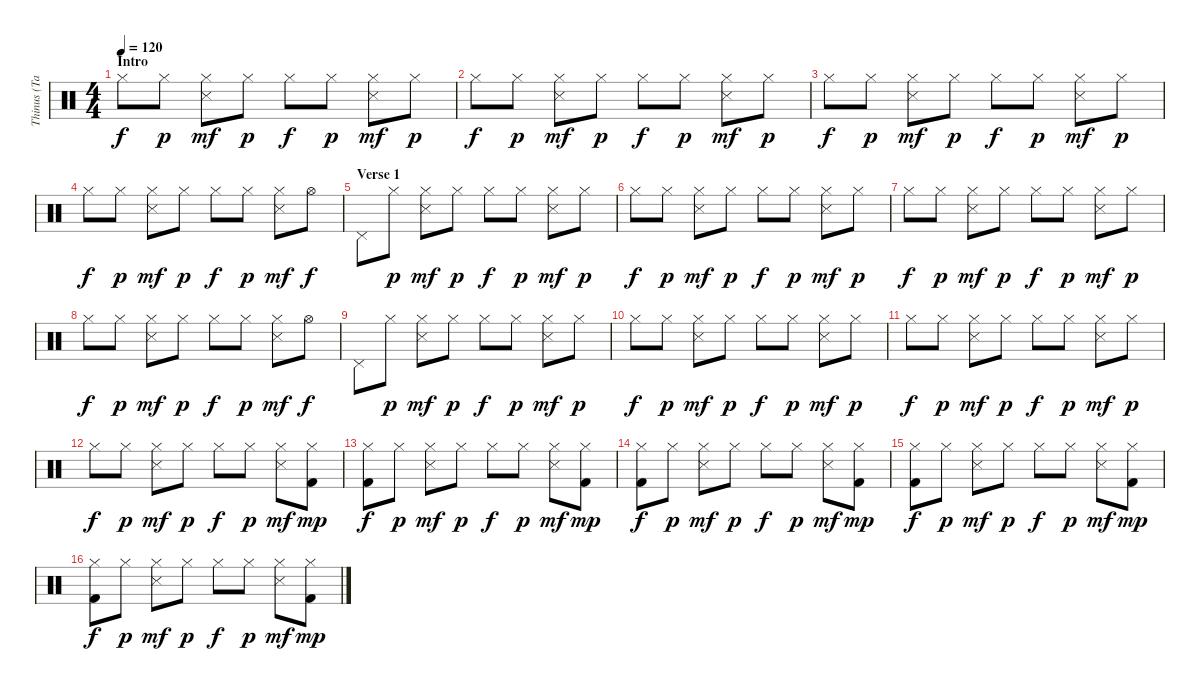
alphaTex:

\track ("Thinus (Tain) Odendaal - Drums" "Thinus (Ta") {instrument percussion}
\staff {score}
\articulation defaults
\ts (4 4)
\section ("" "Intro")
\tempo 120
\clef neutral
\ks c "Hi-Hat (closed)".8{dy f} "Hi-Hat (closed)".8{dy p}
("Hi-Hat (closed)" "Snare (side stick) 3").8{dy mf} "Hi-Hat (closed)".8{dy p} "Hi-Hat (closed)".8{dy f} "Hi-Hat (closed)".8{dy p} ("Hi-Hat (closed)" "Snare (side stick) 3").8{dy mf} "Hi-Hat (closed)".8{dy p} |
"Hi-Hat (closed)".8{dy f} "Hi-Hat (closed)".8{dy p} ("Hi-Hat (closed)" "Snare (side stick) 3").8{dy mf} "Hi-Hat (closed)".8{dy p} "Hi-Hat (closed)".8{dy f} "Hi-Hat (closed)".8{dy p} ("Hi-Hat (closed)" "Snare (side stick) 3").8{dy mf} "Hi-Hat (closed)".8{dy p} |
"Hi-Hat (closed)".8{dy f} "Hi-Hat (closed)".8{dy p} ("Hi-Hat (closed)" "Snare (side stick) 3").8{dy mf} "Hi-Hat (closed)".8{dy p} "Hi-Hat (closed)".8{dy f} "Hi-Hat (closed)".8{dy p} ("Hi-Hat (closed)" "Snare (side stick) 3").8{dy mf} "Hi-Hat (closed)".8{dy p} |
"Hi-Hat (closed)".8{dy f} "Hi-Hat (closed)".8{dy p} ("Hi-Hat (closed)" "Snare (side stick) 3").8{dy mf} "Hi-Hat (closed)".8{dy p} "Hi-Hat (closed)".8{dy f} "Hi-Hat (closed)".8{dy p} ("Hi-Hat (closed)" "Snare (side stick) 3").8{dy mf} "Hi-Hat (open)".8{dy f} |
\section ("" "Verse 1")
"Pedal Hi-Hat (hit)".8 "Hi-Hat (closed)".8{dy p} ("Hi-Hat (closed)" "Snare (side stick) 3").8{dy mf} "Hi-Hat (closed)".8{dy p} "Hi-Hat (closed)".8{dy f} "Hi-Hat (closed)".8{dy p} ("Hi-Hat (closed)" "Snare (side stick) 3").8{dy mf} "Hi-Hat (closed)".8{dy p} |
"Hi-Hat (closed)".8{dy f} "Hi-Hat (closed)".8{dy p} ("Hi-Hat (closed)" "Snare (side stick) 3").8{dy mf} "Hi-Hat (closed)".8{dy p} "Hi-Hat (closed)".8{dy f} "Hi-Hat (closed)".8{dy p} ("Hi-Hat (closed)" "Snare (side stick) 3").8{dy mf} "Hi-Hat (closed)".8{dy p} |
"Hi-Hat (closed)".8{dy f} "Hi-Hat (closed)".8{dy p} ("Hi-Hat (closed)" "Snare (side stick) 3").8{dy mf} "Hi-Hat (closed)".8{dy p} "Hi-Hat (closed)".8{dy f} "Hi-Hat (closed)".8{dy p} ("Hi-Hat (closed)" "Snare (side stick) 3").8{dy mf} "Hi-Hat (closed)".8{dy p} |
"Hi-Hat (closed)".8{dy f} "Hi-Hat (closed)".8{dy p} ("Hi-Hat (closed)" "Snare (side stick) 3").8{dy mf} "Hi-Hat (closed)".8{dy p} "Hi-Hat (closed)".8{dy f} "Hi-Hat (closed)".8{dy p} ("Hi-Hat (closed)" "Snare (side stick) 3").8{dy mf} "Hi-Hat (open)".8{dy f} |
"Pedal Hi-Hat (hit)".8 "Hi-Hat (closed)".8{dy p} ("Hi-Hat (closed)" "Snare (side stick) 3").8{dy mf} "Hi-Hat (closed)".8{dy p} "Hi-Hat (closed)".8{dy f} "Hi-Hat (closed)".8{dy p} ("Hi-Hat (closed)" "Snare (side stick) 3").8{dy mf} "Hi-Hat (closed)".8{dy p} |
"Hi-Hat (closed)".8{dy f} "Hi-Hat (closed)".8{dy p} ("Hi-Hat (closed)" "Snare (side stick) 3").8{dy mf} "Hi-Hat (closed)".8{dy p} "Hi-Hat (closed)".8{dy f} "Hi-Hat (closed)".8{dy p} ("Hi-Hat (closed)" "Snare (side stick) 3").8{dy mf} "Hi-Hat (closed)".8{dy p} |
"Hi-Hat (closed)".8{dy f} "Hi-Hat (closed)".8{dy p} ("Hi-Hat (closed)" "Snare (side stick) 3").8{dy mf} "Hi-Hat (closed)".8{dy p} "Hi-Hat (closed)".8{dy f} "Hi-Hat (closed)".8{dy p} ("Hi-Hat (closed)" "Snare (side stick) 3").8{dy mf} "Hi-Hat (closed)".8{dy p} |
"Hi-Hat (closed)".8{dy f} "Hi-Hat (closed)".8{dy p} ("Hi-Hat (closed)" "Snare (side stick) 3").8{dy mf} "Hi-Hat (closed)".8{dy p} "Hi-Hat (closed)".8{dy f} "Hi-Hat (closed)".8{dy p} ("Hi-Hat (closed)" "Snare (side stick) 3").8{dy mf} ("Hi-Hat (closed)" "Kick (hit) 2").8{dy mp} |
("Hi-Hat (closed)" "Kick (hit) 2").8{dy f} "Hi-Hat (closed)".8{dy p} ("Hi-Hat (closed)" "Snare (side stick) 3").8{dy mf} "Hi-Hat (closed)".8{dy p} "Hi-Hat (closed)".8{dy f} "Hi-Hat (closed)".8{dy p} ("Hi-Hat (closed)" "Snare (side stick) 3").8{dy mf} ("Hi-Hat (closed)" "Kick (hit) 2").8{dy mp} |
("Hi-Hat (closed)" "Kick (hit) 2").8{dy f} "Hi-Hat (closed)".8{dy p} ("Hi-Hat (closed)" "Snare (side stick) 3").8{dy mf} "Hi-Hat (closed)".8{dy p} "Hi-Hat (closed)".8{dy f} "Hi-Hat (closed)".8{dy p} ("Hi-Hat (closed)" "Snare (side stick) 3").8{dy mf} ("Hi-Hat (closed)" "Kick (hit) 2").8{dy mp} |
("Hi-Hat (closed)" "Kick (hit) 2").8{dy f} "Hi-Hat (closed)".8{dy p} ("Hi-Hat (closed)" "Snare (side stick) 3").8{dy mf} "Hi-Hat (closed)".8{dy p} "Hi-Hat (closed)".8{dy f} "Hi-Hat (closed)".8{dy p} ("Hi-Hat (closed)" "Snare (side stick) 3").8{dy mf} ("Hi-Hat (closed)" "Kick (hit) 2").8{dy mp} |
("Hi-Hat (closed)" "Kick (hit) 2").8{dy f} "Hi-Hat (closed)".8{dy p} ("Hi-Hat (closed)" "Snare (side stick) 3").8{dy mf} "Hi-Hat (closed)".8{dy p} "Hi-Hat (closed)".8{dy f} "Hi-Hat (closed)".8{dy p} ("Hi-Hat (closed)" "Snare (side stick) 3").8{dy mf} ("Hi-Hat (closed)" "Kick (hit) 2").8{dy mp}
